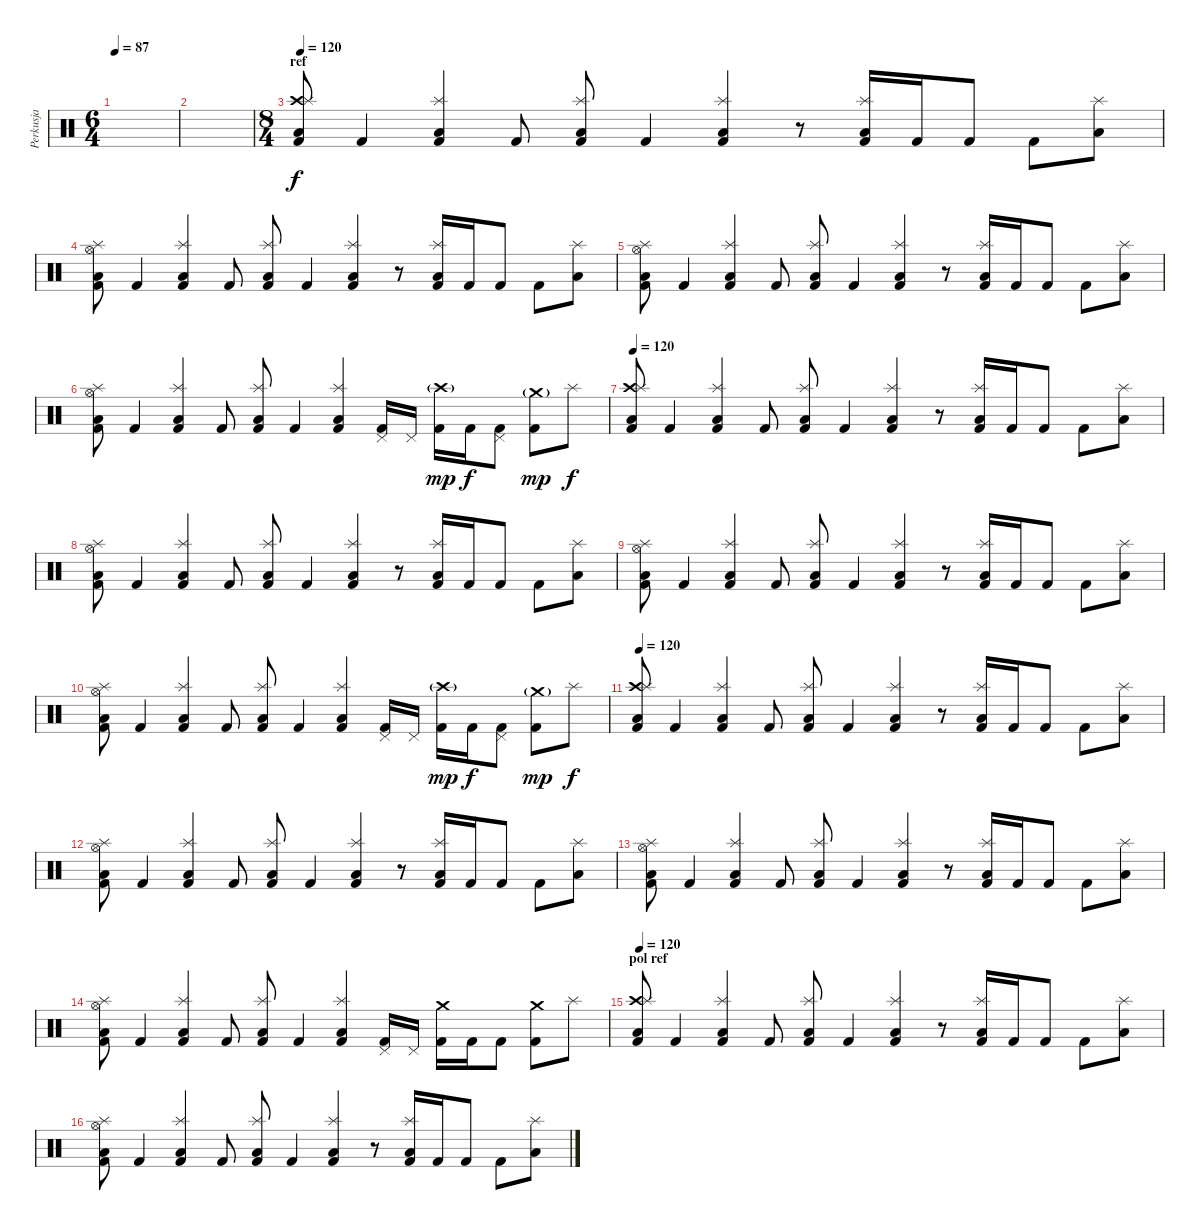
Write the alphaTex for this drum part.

\track ("Perkusja" "Perkusja") {instrument percussion}
\staff {score}
\articulation defaults
\ts (6 4)
\tempo 87
\clef neutral
\ks c
|
|
\ts (8 4)
\section ("" "ref")
\tempo 120
("Kick (hit) 2" "Crash high (hit)" "Splash (hit)" "Low Tom (hit)").8 "Kick (hit) 2".4 ("Kick (hit) 2" "Splash (hit)" "Low Tom (hit)").4 "Kick (hit) 2".8 ("Kick (hit) 2" "Splash (hit)" "Low Tom (hit)").8 "Kick (hit) 2".4 ("Kick (hit) 2" "Splash (hit)" "Low Tom (hit)").4 r.8 ("Kick (hit) 2" "Splash (hit)" "Low Tom (hit)").16 "Kick (hit) 2".16 "Kick (hit) 2".8 "Kick (hit) 2".8 ("Splash (hit)" "Low Tom (hit)").8 |
("Kick (hit) 2" "Hi-Hat (open)" "Splash (hit)" "Low Tom (hit)").8 "Kick (hit) 2".4 ("Kick (hit) 2" "Splash (hit)" "Low Tom (hit)").4 "Kick (hit) 2".8 ("Kick (hit) 2" "Splash (hit)" "Low Tom (hit)").8 "Kick (hit) 2".4 ("Kick (hit) 2" "Splash (hit)" "Low Tom (hit)").4 r.8 ("Kick (hit) 2" "Splash (hit)" "Low Tom (hit)").16 "Kick (hit) 2".16 "Kick (hit) 2".8 "Kick (hit) 2".8 ("Splash (hit)" "Low Tom (hit)").8 |
("Kick (hit) 2" "Hi-Hat (open)" "Splash (hit)" "Low Tom (hit)").8 "Kick (hit) 2".4 ("Kick (hit) 2" "Splash (hit)" "Low Tom (hit)").4 "Kick (hit) 2".8 ("Kick (hit) 2" "Splash (hit)" "Low Tom (hit)").8 "Kick (hit) 2".4 ("Kick (hit) 2" "Splash (hit)" "Low Tom (hit)").4 r.8 ("Kick (hit) 2" "Splash (hit)" "Low Tom (hit)").16 "Kick (hit) 2".16 "Kick (hit) 2".8 "Kick (hit) 2".8 ("Splash (hit)" "Low Tom (hit)").8 |
("Kick (hit) 2" "Hi-Hat (open)" "Splash (hit)" "Low Tom (hit)").8 "Kick (hit) 2".4 ("Kick (hit) 2" "Splash (hit)" "Low Tom (hit)").4 "Kick (hit) 2".8 ("Kick (hit) 2" "Splash (hit)" "Low Tom (hit)").8 "Kick (hit) 2".4 ("Kick (hit) 2" "Splash (hit)" "Low Tom (hit)").4 ("Kick (hit) 2" "Pedal Hi-Hat (hit)").16 "Pedal Hi-Hat (hit)".16 ("Kick (hit) 2" "Crash high (hit)"{g}).16{dy mp} "Kick (hit) 2".16{dy f} ("Kick (hit) 2" "Pedal Hi-Hat (hit)").8 ("Kick (hit) 2" "Crash medium (hit)"{g}).8{dy mp} "Splash (hit)".8{dy f} |
\tempo 120
("Kick (hit) 2" "Crash high (hit)" "Splash (hit)" "Low Tom (hit)").8 "Kick (hit) 2".4 ("Kick (hit) 2" "Splash (hit)" "Low Tom (hit)").4 "Kick (hit) 2".8 ("Kick (hit) 2" "Splash (hit)" "Low Tom (hit)").8 "Kick (hit) 2".4 ("Kick (hit) 2" "Splash (hit)" "Low Tom (hit)").4 r.8 ("Kick (hit) 2" "Splash (hit)" "Low Tom (hit)").16 "Kick (hit) 2".16 "Kick (hit) 2".8 "Kick (hit) 2".8 ("Splash (hit)" "Low Tom (hit)").8 |
("Kick (hit) 2" "Hi-Hat (open)" "Splash (hit)" "Low Tom (hit)").8 "Kick (hit) 2".4 ("Kick (hit) 2" "Splash (hit)" "Low Tom (hit)").4 "Kick (hit) 2".8 ("Kick (hit) 2" "Splash (hit)" "Low Tom (hit)").8 "Kick (hit) 2".4 ("Kick (hit) 2" "Splash (hit)" "Low Tom (hit)").4 r.8 ("Kick (hit) 2" "Splash (hit)" "Low Tom (hit)").16 "Kick (hit) 2".16 "Kick (hit) 2".8 "Kick (hit) 2".8 ("Splash (hit)" "Low Tom (hit)").8 |
("Kick (hit) 2" "Hi-Hat (open)" "Splash (hit)" "Low Tom (hit)").8 "Kick (hit) 2".4 ("Kick (hit) 2" "Splash (hit)" "Low Tom (hit)").4 "Kick (hit) 2".8 ("Kick (hit) 2" "Splash (hit)" "Low Tom (hit)").8 "Kick (hit) 2".4 ("Kick (hit) 2" "Splash (hit)" "Low Tom (hit)").4 r.8 ("Kick (hit) 2" "Splash (hit)" "Low Tom (hit)").16 "Kick (hit) 2".16 "Kick (hit) 2".8 "Kick (hit) 2".8 ("Splash (hit)" "Low Tom (hit)").8 |
("Kick (hit) 2" "Hi-Hat (open)" "Splash (hit)" "Low Tom (hit)").8 "Kick (hit) 2".4 ("Kick (hit) 2" "Splash (hit)" "Low Tom (hit)").4 "Kick (hit) 2".8 ("Kick (hit) 2" "Splash (hit)" "Low Tom (hit)").8 "Kick (hit) 2".4 ("Kick (hit) 2" "Splash (hit)" "Low Tom (hit)").4 ("Kick (hit) 2" "Pedal Hi-Hat (hit)").16 "Pedal Hi-Hat (hit)".16 ("Kick (hit) 2" "Crash high (hit)"{g}).16{dy mp} "Kick (hit) 2".16{dy f} ("Kick (hit) 2" "Pedal Hi-Hat (hit)").8 ("Kick (hit) 2" "Crash medium (hit)"{g}).8{dy mp} "Splash (hit)".8{dy f} |
\tempo 120
("Kick (hit) 2" "Crash high (hit)" "Splash (hit)" "Low Tom (hit)").8 "Kick (hit) 2".4 ("Kick (hit) 2" "Splash (hit)" "Low Tom (hit)").4 "Kick (hit) 2".8 ("Kick (hit) 2" "Splash (hit)" "Low Tom (hit)").8 "Kick (hit) 2".4 ("Kick (hit) 2" "Splash (hit)" "Low Tom (hit)").4 r.8 ("Kick (hit) 2" "Splash (hit)" "Low Tom (hit)").16 "Kick (hit) 2".16 "Kick (hit) 2".8 "Kick (hit) 2".8 ("Splash (hit)" "Low Tom (hit)").8 |
("Kick (hit) 2" "Hi-Hat (open)" "Splash (hit)" "Low Tom (hit)").8 "Kick (hit) 2".4 ("Kick (hit) 2" "Splash (hit)" "Low Tom (hit)").4 "Kick (hit) 2".8 ("Kick (hit) 2" "Splash (hit)" "Low Tom (hit)").8 "Kick (hit) 2".4 ("Kick (hit) 2" "Splash (hit)" "Low Tom (hit)").4 r.8 ("Kick (hit) 2" "Splash (hit)" "Low Tom (hit)").16 "Kick (hit) 2".16 "Kick (hit) 2".8 "Kick (hit) 2".8 ("Splash (hit)" "Low Tom (hit)").8 |
("Kick (hit) 2" "Hi-Hat (open)" "Splash (hit)" "Low Tom (hit)").8 "Kick (hit) 2".4 ("Kick (hit) 2" "Splash (hit)" "Low Tom (hit)").4 "Kick (hit) 2".8 ("Kick (hit) 2" "Splash (hit)" "Low Tom (hit)").8 "Kick (hit) 2".4 ("Kick (hit) 2" "Splash (hit)" "Low Tom (hit)").4 r.8 ("Kick (hit) 2" "Splash (hit)" "Low Tom (hit)").16 "Kick (hit) 2".16 "Kick (hit) 2".8 "Kick (hit) 2".8 ("Splash (hit)" "Low Tom (hit)").8 |
("Kick (hit) 2" "Hi-Hat (open)" "Splash (hit)" "Low Tom (hit)").8 "Kick (hit) 2".4 ("Kick (hit) 2" "Splash (hit)" "Low Tom (hit)").4 "Kick (hit) 2".8 ("Kick (hit) 2" "Splash (hit)" "Low Tom (hit)").8 "Kick (hit) 2".4 ("Kick (hit) 2" "Splash (hit)" "Low Tom (hit)").4 ("Kick (hit) 2" "Pedal Hi-Hat (hit)").16 "Pedal Hi-Hat (hit)".16 ("Kick (hit) 2" "Crash medium (hit)").16 "Kick (hit) 2".16 "Kick (hit) 2".8 ("Kick (hit) 2" "Crash medium (hit)").8 "Splash (hit)".8 |
\section ("" "pol ref")
\tempo 120
("Kick (hit) 2" "Crash high (hit)" "Splash (hit)" "Low Tom (hit)").8 "Kick (hit) 2".4 ("Kick (hit) 2" "Splash (hit)" "Low Tom (hit)").4 "Kick (hit) 2".8 ("Kick (hit) 2" "Splash (hit)" "Low Tom (hit)").8 "Kick (hit) 2".4 ("Kick (hit) 2" "Splash (hit)" "Low Tom (hit)").4 r.8 ("Kick (hit) 2" "Splash (hit)" "Low Tom (hit)").16 "Kick (hit) 2".16 "Kick (hit) 2".8 "Kick (hit) 2".8 ("Splash (hit)" "Low Tom (hit)").8 |
("Kick (hit) 2" "Hi-Hat (open)" "Splash (hit)" "Low Tom (hit)").8 "Kick (hit) 2".4 ("Kick (hit) 2" "Splash (hit)" "Low Tom (hit)").4 "Kick (hit) 2".8 ("Kick (hit) 2" "Splash (hit)" "Low Tom (hit)").8 "Kick (hit) 2".4 ("Kick (hit) 2" "Splash (hit)" "Low Tom (hit)").4 r.8 ("Kick (hit) 2" "Splash (hit)" "Low Tom (hit)").16 "Kick (hit) 2".16 "Kick (hit) 2".8 "Kick (hit) 2".8 ("Splash (hit)" "Low Tom (hit)").8
